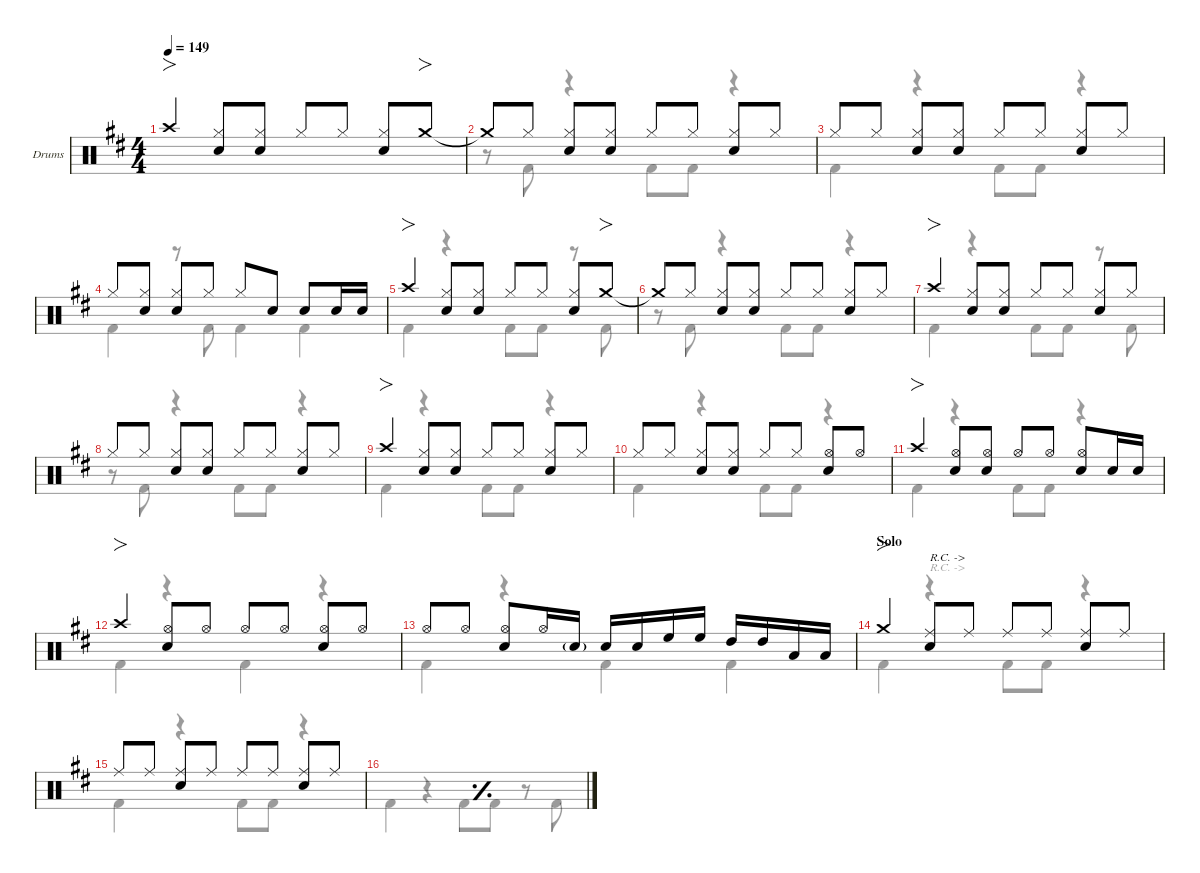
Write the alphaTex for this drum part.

\defaultSystemsLayout 4
\hideDynamics
\bracketExtendMode nobrackets
\firstSystemTrackNameOrientation horizontal
\track ("Drums" "Drums") {defaultSystemsLayout 4 instrument percussion}
\staff {score}
\articulation defaults
\voice
\ts (4 4)
\tempo 149
\clef neutral
\scale
0.266618
\ks d "Crash high (hit)"{acc forcenatural}.4{fo dy f beam Up}
("Hi-Hat (closed)"{acc forcenatural} "Snare (hit) 2"{acc forcenatural}).8{beam Up} ("Hi-Hat (closed)"{acc forcenatural} "Snare (hit) 2"{acc forcenatural}).8{beam Up} "Hi-Hat (closed)"{acc forcenatural}.8{beam Up} "Hi-Hat (closed)"{acc forcenatural}.8{dy mp beam Up} ("Hi-Hat (closed)"{acc forcenatural} "Snare (hit) 2"{acc forcenatural}).8{dy f beam Up} "Crash medium (hit)"{acc forcenatural}.8{fo beam Up} |
\scale
0.244461 "Crash medium (hit)"{t acc forcenatural}.8{beam Up} "Hi-Hat (closed)"{acc forcenatural}.8{dy mp beam Up} ("Hi-Hat (closed)"{acc forcenatural} "Snare (hit) 2"{acc forcenatural}).8{dy f beam Up} ("Hi-Hat (closed)"{acc forcenatural} "Snare (hit) 2"{acc forcenatural}).8{beam Up} "Hi-Hat (closed)"{acc forcenatural}.8{beam Up} "Hi-Hat (closed)"{acc forcenatural}.8{dy mp beam Up} ("Hi-Hat (closed)"{acc forcenatural} "Snare (hit) 2"{acc forcenatural}).8{dy f beam Up} "Hi-Hat (closed)"{acc forcenatural}.8{dy mp beam Up} |
\scale
0.24446 "Hi-Hat (closed)"{acc forcenatural}.8{dy f beam Up} "Hi-Hat (closed)"{acc forcenatural}.8{dy mp beam Up} ("Hi-Hat (closed)"{acc forcenatural} "Snare (hit) 2"{acc forcenatural}).8{dy f beam Up} ("Hi-Hat (closed)"{acc forcenatural} "Snare (hit) 2"{acc forcenatural}).8{beam Up} "Hi-Hat (closed)"{acc forcenatural}.8{beam Up} "Hi-Hat (closed)"{acc forcenatural}.8{dy mp beam Up} ("Hi-Hat (closed)"{acc forcenatural} "Snare (hit) 2"{acc forcenatural}).8{dy f beam Up} "Hi-Hat (closed)"{acc forcenatural}.8{dy mp beam Up} |
\scale
0.244461 "Hi-Hat (closed)"{acc forcenatural}.8{dy f beam Up} ("Hi-Hat (closed)"{acc forcenatural} "Snare (hit) 2"{acc forcenatural}).8{beam Up} ("Hi-Hat (closed)"{acc forcenatural} "Snare (hit) 2"{acc forcenatural}).8{beam Up} "Hi-Hat (closed)"{acc forcenatural}.8{dy mp beam Up} "Hi-Hat (closed)"{acc forcenatural}.8{dy f beam Up} "Snare (hit) 2"{acc forcenatural}.8{beam Up beam split} "Snare (hit) 2"{acc forcenatural}.8{beam Up} "Snare (hit) 2"{acc forcenatural}.16{beam Up} "Snare (hit) 2"{acc forcenatural}.16{beam Up} |
\scale
0.266618 "Crash high (hit)"{acc forcenatural}.4{fo beam Up} ("Hi-Hat (closed)"{acc forcenatural} "Snare (hit) 2"{acc forcenatural}).8{beam Up} ("Hi-Hat (closed)"{acc forcenatural} "Snare (hit) 2"{acc forcenatural}).8{beam Up} "Hi-Hat (closed)"{acc forcenatural}.8{beam Up} "Hi-Hat (closed)"{acc forcenatural}.8{dy mp beam Up} ("Hi-Hat (closed)"{acc forcenatural} "Snare (hit) 2"{acc forcenatural}).8{dy f beam Up} "Crash medium (hit)"{acc forcenatural}.8{fo beam Up} |
\scale
0.244461 "Crash medium (hit)"{t acc forcenatural}.8{beam Up} "Hi-Hat (closed)"{acc forcenatural}.8{dy mp beam Up} ("Hi-Hat (closed)"{acc forcenatural} "Snare (hit) 2"{acc forcenatural}).8{dy f beam Up} ("Hi-Hat (closed)"{acc forcenatural} "Snare (hit) 2"{acc forcenatural}).8{beam Up} "Hi-Hat (closed)"{acc forcenatural}.8{beam Up} "Hi-Hat (closed)"{acc forcenatural}.8{dy mp beam Up} ("Hi-Hat (closed)"{acc forcenatural} "Snare (hit) 2"{acc forcenatural}).8{dy f beam Up} "Hi-Hat (closed)"{acc forcenatural}.8{dy mp beam Up} |
\scale
0.244461 "Crash high (hit)"{acc forcenatural}.4{fo dy f beam Up} ("Hi-Hat (closed)"{acc forcenatural} "Snare (hit) 2"{acc forcenatural}).8{beam Up} ("Hi-Hat (closed)"{acc forcenatural} "Snare (hit) 2"{acc forcenatural}).8{beam Up} "Hi-Hat (closed)"{acc forcenatural}.8{beam Up} "Hi-Hat (closed)"{acc forcenatural}.8{dy mp beam Up} ("Hi-Hat (closed)"{acc forcenatural} "Snare (hit) 2"{acc forcenatural}).8{dy f beam Up} "Hi-Hat (closed)"{acc forcenatural}.8{dy mp beam Up} |
\scale
0.244461 "Hi-Hat (closed)"{acc forcenatural}.8{dy f beam Up} "Hi-Hat (closed)"{acc forcenatural}.8{dy mp beam Up} ("Hi-Hat (closed)"{acc forcenatural} "Snare (hit) 2"{acc forcenatural}).8{dy f beam Up} ("Hi-Hat (closed)"{acc forcenatural} "Snare (hit) 2"{acc forcenatural}).8{beam Up} "Hi-Hat (closed)"{acc forcenatural}.8{beam Up} "Hi-Hat (closed)"{acc forcenatural}.8{dy mp beam Up} ("Hi-Hat (closed)"{acc forcenatural} "Snare (hit) 2"{acc forcenatural}).8{dy f beam Up} "Hi-Hat (closed)"{acc forcenatural}.8{dy mp beam Up} |
\scale
0.347324 "Crash high (hit)"{acc forcenatural}.4{fo dy f beam Up} ("Hi-Hat (closed)"{acc forcenatural} "Snare (hit) 2"{acc forcenatural}).8{beam Up} ("Hi-Hat (closed)"{acc forcenatural} "Snare (hit) 2"{acc forcenatural}).8{beam Up} "Hi-Hat (closed)"{acc forcenatural}.8{beam Up} "Hi-Hat (closed)"{acc forcenatural}.8{dy mp beam Up} ("Hi-Hat (closed)"{acc forcenatural} "Snare (hit) 2"{acc forcenatural}).8{dy f beam Up} "Hi-Hat (closed)"{acc forcenatural}.8{dy mp beam Up} |
\scale
0.328425 "Hi-Hat (closed)"{acc forcenatural}.8{dy f beam Up} "Hi-Hat (closed)"{acc forcenatural}.8{dy mp beam Up} ("Hi-Hat (closed)"{acc forcenatural} "Snare (hit) 2"{acc forcenatural}).8{dy f beam Up} ("Hi-Hat (closed)"{acc forcenatural} "Snare (hit) 2"{acc forcenatural}).8{beam Up} "Hi-Hat (closed)"{acc forcenatural}.8{beam Up} "Hi-Hat (closed)"{acc forcenatural}.8{dy mp beam Up} ("Hi-Hat (open)"{acc forcenatural} "Snare (hit) 2"{acc forcenatural}).8{dy f beam Up} "Hi-Hat (open)"{acc forcenatural}.8{dy mf beam Up} |
\scale
0.32425 "Crash high (hit)"{acc forcenatural}.4{fo dy f beam Up} ("Hi-Hat (open)"{acc forcenatural} "Snare (hit) 2"{acc forcenatural}).8{beam Up} ("Hi-Hat (open)"{acc forcenatural} "Snare (hit) 2"{acc forcenatural}).8{beam Up} "Hi-Hat (open)"{acc forcenatural}.8{beam Up} "Hi-Hat (open)"{acc forcenatural}.8{beam Up beam split} ("Snare (hit) 2"{acc forcenatural} "Hi-Hat (open)"{acc forcenatural}).8{beam Up} "Snare (hit) 2"{acc forcenatural}.16{beam Up} "Snare (hit) 2"{acc forcenatural}.16{beam Up} |
\scale
0.511079 "Crash high (hit)"{acc forcenatural}.4{fo beam Up} ("Hi-Hat (open)"{acc forcenatural} "Snare (hit) 2"{acc forcenatural}).8{beam Up} "Hi-Hat (open)"{acc forcenatural}.8{dy mf beam Up} "Hi-Hat (open)"{acc forcenatural}.8{dy f beam Up} "Hi-Hat (open)"{acc forcenatural}.8{dy mf beam Up} ("Hi-Hat (open)"{acc forcenatural} "Snare (hit) 2"{acc forcenatural}).8{dy f beam Up} "Hi-Hat (open)"{acc forcenatural}.8{dy mf beam Up} |
\scale
0.488921 "Hi-Hat (open)"{acc forcenatural}.8{dy f beam Up} "Hi-Hat (open)"{acc forcenatural}.8{dy mf beam Up beam split} ("Hi-Hat (open)"{acc forcenatural} "Snare (hit) 2"{acc forcenatural}).8{dy f beam Up} "Hi-Hat (open)"{acc forcenatural}.16{dy mf beam Up} "Snare (hit) 2"{g acc forcenatural}.16{beam Up} "Snare (hit) 2"{acc forcenatural}.16{dy f beam Up} "Snare (hit) 2"{acc forcenatural}.16{beam Up} "High Floor Tom (hit)"{acc forcenatural}.16{beam Up} "High Floor Tom (hit)"{acc forcenatural}.16{beam Up beam split} "High Tom (hit)"{acc forcenatural}.16{beam Up} "High Tom (hit)"{acc forcenatural}.16{beam Up} "Low Tom (hit)"{acc forcenatural}.16{beam Up} "Low Tom (hit)"{acc forcenatural}.16{beam Up} |
\section ("" "Solo")
\scale
0.266618 "Crash medium (hit)"{acc forcenatural}.4{fo beam Up} ("Ride (middle)"{acc forcenatural} "Snare (hit) 2"{acc forcenatural}).8{txt "R.C. ->" beam Up} "Ride (middle)"{acc forcenatural}.8{dy mf beam Up} "Ride (middle)"{acc forcenatural}.8{dy f beam Up} "Ride (middle)"{acc forcenatural}.8{beam Up} ("Ride (middle)"{acc forcenatural} "Snare (hit) 2"{acc forcenatural}).8{beam Up} "Ride (middle)"{acc forcenatural}.8{dy mf beam Up} |
\scale
0.244461 "Ride (middle)"{acc forcenatural}.8{dy f beam Up} "Ride (middle)"{acc forcenatural}.8{beam Up} ("Ride (middle)"{acc forcenatural} "Snare (hit) 2"{acc forcenatural}).8{beam Up} "Ride (middle)"{acc forcenatural}.8{dy mf beam Up} "Ride (middle)"{acc forcenatural}.8{dy f beam Up} "Ride (middle)"{acc forcenatural}.8{beam Up} ("Ride (middle)"{acc forcenatural} "Snare (hit) 2"{acc forcenatural}).8{beam Up} "Ride (middle)"{acc forcenatural}.8{dy mf beam Up} |
\simile simple
\scale
0.24446
\voice
\clef neutral
\ottava regular
\simile none
\scale
0.266618
\ks d "Kick (hit) 2"{acc forcenatural}.4{dy f beam Down}
r.4{beam Down} "Kick (hit) 2"{acc forcenatural}.8{beam Down} "Kick (hit) 2"{acc forcenatural}.8{beam Down} r.8{beam Down} "Kick (hit) 2"{acc forcenatural}.8{beam Down} |
\scale
0.244461 r.8{beam Down} "Kick (hit) 2"{acc forcenatural}.8{beam Down} r.4{beam Down} "Kick (hit) 2"{acc forcenatural}.8{beam Down} "Kick (hit) 2"{acc forcenatural}.8{beam Down} r.4{beam Down} |
\scale
0.24446 "Kick (hit) 2"{acc forcenatural}.4{beam Down} r.4{beam Down} "Kick (hit) 2"{acc forcenatural}.8{beam Down} "Kick (hit) 2"{acc forcenatural}.8{beam Down} r.4{beam Down} |
\scale
0.244461 "Kick (hit) 2"{acc forcenatural}.4{beam Down} r.8{beam Down} "Kick (hit) 2"{acc forcenatural}.8{beam Down} "Kick (hit) 2"{acc forcenatural}.4{beam Down} "Kick (hit) 2"{acc forcenatural}.4{beam Down} |
\scale
0.266618 "Kick (hit) 2"{acc forcenatural}.4{beam Down} r.4{beam Down} "Kick (hit) 2"{acc forcenatural}.8{beam Down} "Kick (hit) 2"{acc forcenatural}.8{beam Down} r.8{beam Down} "Kick (hit) 2"{acc forcenatural}.8{beam Down} |
\scale
0.244461 r.8{beam Down} "Kick (hit) 2"{acc forcenatural}.8{beam Down} r.4{beam Down} "Kick (hit) 2"{acc forcenatural}.8{beam Down} "Kick (hit) 2"{acc forcenatural}.8{beam Down} r.4{beam Down} |
\scale
0.244461 "Kick (hit) 2"{acc forcenatural}.4{beam Down} r.4{beam Down} "Kick (hit) 2"{acc forcenatural}.8{beam Down} "Kick (hit) 2"{acc forcenatural}.8{beam Down} r.8{beam Down} "Kick (hit) 2"{acc forcenatural}.8{beam Down} |
\scale
0.244461 r.8{beam Down} "Kick (hit) 2"{acc forcenatural}.8{beam Down} r.4{beam Down} "Kick (hit) 2"{acc forcenatural}.8{beam Down} "Kick (hit) 2"{acc forcenatural}.8{beam Down} r.4{beam Down} |
\scale
0.347324 "Kick (hit) 2"{acc forcenatural}.4{beam Down} r.4{beam Down} "Kick (hit) 2"{acc forcenatural}.8{beam Down} "Kick (hit) 2"{acc forcenatural}.8{beam Down} r.4{beam Down} |
\scale
0.328425 "Kick (hit) 2"{acc forcenatural}.4{beam Down} r.4{beam Down} "Kick (hit) 2"{acc forcenatural}.8{beam Down} "Kick (hit) 2"{acc forcenatural}.8{beam Down} r.4{beam Down} |
\scale
0.32425 "Kick (hit) 2"{acc forcenatural}.4{beam Down} r.4{beam Down} "Kick (hit) 2"{acc forcenatural}.8{beam Down} "Kick (hit) 2"{acc forcenatural}.8{beam Down} r.4{beam Down} |
\scale
0.511079 "Kick (hit) 2"{acc forcenatural}.4{beam Down} r.4{beam Down} "Kick (hit) 2"{acc forcenatural}.4{beam Down} r.4{beam Down} |
\scale
0.488921 "Kick (hit) 2"{acc forcenatural}.4{beam Down} r.4{beam Down} "Kick (hit) 2"{acc forcenatural}.4{beam Down} "Kick (hit) 2"{acc forcenatural}.4{beam Down} |
\scale
0.266618 "Kick (hit) 2"{acc forcenatural}.4{beam Down} r.4{txt "R.C. ->" beam Down} "Kick (hit) 2"{acc forcenatural}.8{beam Down} "Kick (hit) 2"{acc forcenatural}.8{beam Down} r.4{beam Down} |
\scale
0.244461 "Kick (hit) 2"{acc forcenatural}.4{beam Down} r.4{beam Down} "Kick (hit) 2"{acc forcenatural}.8{beam Down} "Kick (hit) 2"{acc forcenatural}.8{beam Down} r.4{beam Down} |
\simile simple
\scale
0.24446
